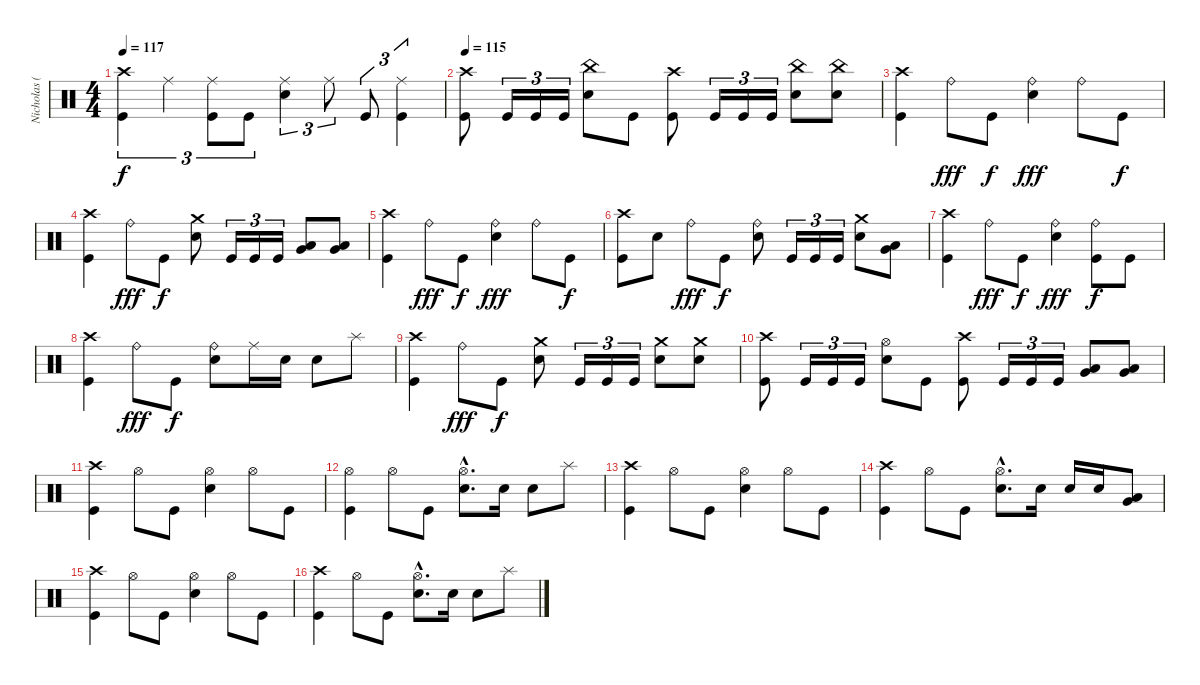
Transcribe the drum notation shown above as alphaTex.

\track ("Nicholas (Drums)" "Nicholas (") {instrument percussion}
\staff {score}
\articulation defaults
\ts (4 4)
\tempo 117
\clef neutral
\ks c
("Crash high (hit)" "Kick (hit)").4{tu (3 2) dy f} "Ride (middle)".4{tu (3 2)} ("Ride (middle)" "Kick (hit)").8{tu (3 2)} "Kick (hit)".8{tu (3 2)} ("Ride (middle)" "Electric Snare (hit)").4{tu (3 2)} "Ride (middle)".8{tu (3 2)} "Kick (hit)".8{tu (3 2)} ("Ride (middle)" "Kick (hit)").4{tu (3 2)} |
\tempo 115
("Crash high (hit)" "Kick (hit)").8 "Kick (hit)".16{tu (3 2)} "Kick (hit)".16{tu (3 2)} "Kick (hit)".16{tu (3 2)} ("China (hit)" "Electric Snare (hit)").8 "Kick (hit)".8 ("Crash high (hit)" "Kick (hit)").8 "Kick (hit)".16{tu (3 2)} "Kick (hit)".16{tu (3 2)} "Kick (hit)".16{tu (3 2)} ("China (hit)" "Electric Snare (hit)").8 ("China (hit)" "Electric Snare (hit)").8 |
("Crash high (hit)" "Kick (hit)").4 "Ride (bell)".8{dy fff} "Kick (hit)".8{dy f} ("Ride (bell)" "Electric Snare (hit)").4{dy fff} "Ride (bell)".8 "Kick (hit)".8{dy f} |
("Crash high (hit)" "Kick (hit)").4 "Ride (bell)".8{dy fff} "Kick (hit)".8{dy f} ("Crash medium (hit)" "Electric Snare (hit)").8 "Kick (hit)".16{tu (3 2)} "Kick (hit)".16{tu (3 2)} "Kick (hit)".16{tu (3 2)} ("Low Tom (hit)" "Very Low Tom (hit)").8{bd 60} ("Low Tom (hit)" "Very Low Tom (hit)").8{bd 60} |
("Crash high (hit)" "Kick (hit)").4 "Ride (bell)".8{dy fff} "Kick (hit)".8{dy f} ("Ride (bell)" "Electric Snare (hit)").4{dy fff} "Ride (bell)".8 "Kick (hit)".8{dy f} |
("Crash high (hit)" "Kick (hit)").8 "Electric Snare (hit)".8 "Ride (bell)".8{dy fff} "Kick (hit)".8{dy f} ("Ride (bell)" "Electric Snare (hit)").8 "Kick (hit)".16{tu (3 2)} "Kick (hit)".16{tu (3 2)} "Kick (hit)".16{tu (3 2)} ("Crash medium (hit)" "Electric Snare (hit)").8 ("Low Tom (hit)" "Very Low Tom (hit)").8{bu 60} |
("Crash high (hit)" "Kick (hit)").4 "Ride (bell)".8{dy fff} "Kick (hit)".8{dy f} ("Ride (bell)" "Electric Snare (hit)").4{dy fff} ("Ride (bell)" "Kick (hit)").8{dy f} "Kick (hit)".8 |
("Crash high (hit)" "Kick (hit)").4 "Ride (bell)".8{dy fff} "Kick (hit)".8{dy f} ("Ride (bell)" "Electric Snare (hit)").8 "Ride (middle)".16 "Electric Snare (hit)".16 "Electric Snare (hit)".8 "Splash (hit)".8 |
("Crash high (hit)" "Kick (hit)").4 "Ride (bell)".8{dy fff} "Kick (hit)".8{dy f} ("Crash medium (hit)" "Electric Snare (hit)").8 "Kick (hit)".16{tu (3 2)} "Kick (hit)".16{tu (3 2)} "Kick (hit)".16{tu (3 2)} ("Crash medium (hit)" "Electric Snare (hit)").8 ("Crash medium (hit)" "Electric Snare (hit)").8 |
("Crash high (hit)" "Kick (hit)").8 "Kick (hit)".16{tu (3 2)} "Kick (hit)".16{tu (3 2)} "Kick (hit)".16{tu (3 2)} ("Hi-Hat (open)" "Electric Snare (hit)").8 "Kick (hit)".8 ("Crash high (hit)" "Kick (hit)").8 "Kick (hit)".16{tu (3 2)} "Kick (hit)".16{tu (3 2)} "Kick (hit)".16{tu (3 2)} ("Low Tom (hit)" "Very Low Tom (hit)").8{bd 60} ("Low Tom (hit)" "Very Low Tom (hit)").8{bd 60} |
("Crash high (hit)" "Kick (hit)").4 "Hi-Hat (open)".8 "Kick (hit)".8 ("Hi-Hat (open)" "Electric Snare (hit)").4 "Hi-Hat (open)".8 "Kick (hit)".8 |
("Hi-Hat (open)" "Kick (hit)").4 "Hi-Hat (open)".8 "Kick (hit)".8 ("Hi-Hat (open)"{hac} "Electric Snare (hit)"{hac}).8{d} "Electric Snare (hit)".16 "Electric Snare (hit)".8 "Splash (hit)".8 |
("Crash high (hit)" "Kick (hit)").4 "Hi-Hat (open)".8 "Kick (hit)".8 ("Hi-Hat (open)" "Electric Snare (hit)").4 "Hi-Hat (open)".8 "Kick (hit)".8 |
("Crash high (hit)" "Kick (hit)").4 "Hi-Hat (open)".8 "Kick (hit)".8 ("Hi-Hat (open)"{hac} "Electric Snare (hit)"{hac}).8{d} "Electric Snare (hit)".16 "Electric Snare (hit)".16 "Electric Snare (hit)".16 ("Low Tom (hit)" "Very Low Tom (hit)").8{bd 60} |
("Crash high (hit)" "Kick (hit)").4 "Hi-Hat (open)".8 "Kick (hit)".8 ("Hi-Hat (open)" "Electric Snare (hit)").4 "Hi-Hat (open)".8 "Kick (hit)".8 |
("Crash high (hit)" "Kick (hit)").4 "Hi-Hat (open)".8 "Kick (hit)".8 ("Hi-Hat (open)"{hac} "Electric Snare (hit)"{hac}).8{d} "Electric Snare (hit)".16 "Electric Snare (hit)".8 "Splash (hit)".8
